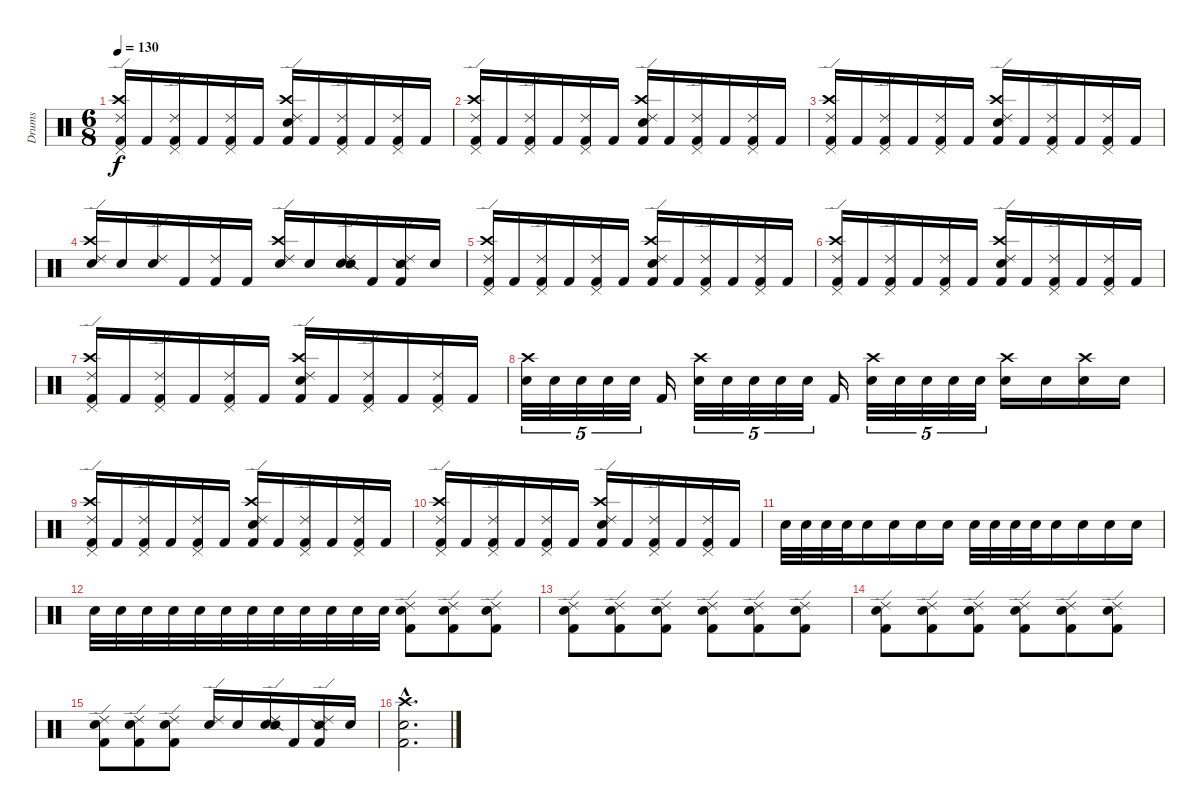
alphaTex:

\track ("Drums" "Drums") {instrument percussion}
\staff {score}
\articulation defaults
\ts (6 8)
\tempo 130
\clef neutral
\ks c
("Ride (edge) 2" "Crash high (hit)" "Pedal Hi-Hat (hit)" "Kick (hit) 2").16{dy f} "Kick (hit) 2".16 ("Ride (edge) 2" "Pedal Hi-Hat (hit)" "Kick (hit) 2").16 "Kick (hit) 2".16 ("Ride (edge) 2" "Pedal Hi-Hat (hit)" "Kick (hit) 2").16 "Kick (hit) 2".16 ("Ride (edge) 2" "Crash high (hit)" "Electric Snare (hit)" "Kick (hit) 2").16 "Kick (hit) 2".16 ("Ride (edge) 2" "Pedal Hi-Hat (hit)" "Kick (hit) 2").16 "Kick (hit) 2".16 ("Ride (edge) 2" "Pedal Hi-Hat (hit)" "Kick (hit) 2").16 "Kick (hit) 2".16 |
("Ride (edge) 2" "Crash high (hit)" "Pedal Hi-Hat (hit)" "Kick (hit) 2").16 "Kick (hit) 2".16 ("Ride (edge) 2" "Pedal Hi-Hat (hit)" "Kick (hit) 2").16 "Kick (hit) 2".16 ("Ride (edge) 2" "Pedal Hi-Hat (hit)" "Kick (hit) 2").16 "Kick (hit) 2".16 ("Ride (edge) 2" "Crash high (hit)" "Electric Snare (hit)" "Kick (hit) 2").16 "Kick (hit) 2".16 ("Ride (edge) 2" "Pedal Hi-Hat (hit)" "Kick (hit) 2").16 "Kick (hit) 2".16 ("Ride (edge) 2" "Pedal Hi-Hat (hit)" "Kick (hit) 2").16 "Kick (hit) 2".16 |
("Ride (edge) 2" "Crash high (hit)" "Pedal Hi-Hat (hit)" "Kick (hit) 2").16 "Kick (hit) 2".16 ("Ride (edge) 2" "Pedal Hi-Hat (hit)" "Kick (hit) 2").16 "Kick (hit) 2".16 ("Ride (edge) 2" "Pedal Hi-Hat (hit)" "Kick (hit) 2").16 "Kick (hit) 2".16 ("Ride (edge) 2" "Crash high (hit)" "Electric Snare (hit)" "Kick (hit) 2").16 "Kick (hit) 2".16 ("Ride (edge) 2" "Pedal Hi-Hat (hit)" "Kick (hit) 2").16 "Kick (hit) 2".16 ("Ride (edge) 2" "Pedal Hi-Hat (hit)" "Kick (hit) 2").16 "Kick (hit) 2".16 |
("Ride (edge) 2" "Crash high (hit)" "Electric Snare (hit)").16 "Electric Snare (hit)".16 ("Ride (edge) 2" "Electric Snare (hit)").16 "Kick (hit) 2".16 ("Ride (edge) 2" "Kick (hit) 2").16 "Kick (hit) 2".16 ("Ride (edge) 2" "Crash high (hit)" "Electric Snare (hit)").16 "Electric Snare (hit)".16 ("Ride (edge) 2" "Electric Snare (hit)" "Snare (side stick) 2").16 "Kick (hit) 2".16 ("Ride (edge) 2" "Snare (side stick) 2" "Kick (hit) 2").16 "Electric Snare (hit)".16 |
("Ride (edge) 2" "Crash high (hit)" "Pedal Hi-Hat (hit)" "Kick (hit) 2").16 "Kick (hit) 2".16 ("Ride (edge) 2" "Pedal Hi-Hat (hit)" "Kick (hit) 2").16 "Kick (hit) 2".16 ("Ride (edge) 2" "Pedal Hi-Hat (hit)" "Kick (hit) 2").16 "Kick (hit) 2".16 ("Ride (edge) 2" "Crash high (hit)" "Electric Snare (hit)" "Kick (hit) 2").16 "Kick (hit) 2".16 ("Ride (edge) 2" "Pedal Hi-Hat (hit)" "Kick (hit) 2").16 "Kick (hit) 2".16 ("Ride (edge) 2" "Pedal Hi-Hat (hit)" "Kick (hit) 2").16 "Kick (hit) 2".16 |
("Ride (edge) 2" "Crash high (hit)" "Pedal Hi-Hat (hit)" "Kick (hit) 2").16 "Kick (hit) 2".16 ("Ride (edge) 2" "Pedal Hi-Hat (hit)" "Kick (hit) 2").16 "Kick (hit) 2".16 ("Ride (edge) 2" "Pedal Hi-Hat (hit)" "Kick (hit) 2").16 "Kick (hit) 2".16 ("Ride (edge) 2" "Crash high (hit)" "Electric Snare (hit)" "Kick (hit) 2").16 "Kick (hit) 2".16 ("Ride (edge) 2" "Pedal Hi-Hat (hit)" "Kick (hit) 2").16 "Kick (hit) 2".16 ("Ride (edge) 2" "Pedal Hi-Hat (hit)" "Kick (hit) 2").16 "Kick (hit) 2".16 |
("Ride (edge) 2" "Crash high (hit)" "Pedal Hi-Hat (hit)" "Kick (hit) 2").16 "Kick (hit) 2".16 ("Ride (edge) 2" "Pedal Hi-Hat (hit)" "Kick (hit) 2").16 "Kick (hit) 2".16 ("Ride (edge) 2" "Pedal Hi-Hat (hit)" "Kick (hit) 2").16 "Kick (hit) 2".16 ("Ride (edge) 2" "Crash high (hit)" "Electric Snare (hit)" "Kick (hit) 2").16 "Kick (hit) 2".16 ("Ride (edge) 2" "Pedal Hi-Hat (hit)" "Kick (hit) 2").16 "Kick (hit) 2".16 ("Ride (edge) 2" "Pedal Hi-Hat (hit)" "Kick (hit) 2").16 "Kick (hit) 2".16 |
("Crash high (hit)" "Electric Snare (hit)").32{tu (5 4)} "Electric Snare (hit)".32{tu (5 4)} "Electric Snare (hit)".32{tu (5 4)} "Electric Snare (hit)".32{tu (5 4)} "Electric Snare (hit)".32{tu (5 4)} "Kick (hit) 2".16 ("Crash high (hit)" "Electric Snare (hit)").32{tu (5 4)} "Electric Snare (hit)".32{tu (5 4)} "Electric Snare (hit)".32{tu (5 4)} "Electric Snare (hit)".32{tu (5 4)} "Electric Snare (hit)".32{tu (5 4)} "Kick (hit) 2".16 ("Crash high (hit)" "Electric Snare (hit)").32{tu (5 4)} "Electric Snare (hit)".32{tu (5 4)} "Electric Snare (hit)".32{tu (5 4)} "Electric Snare (hit)".32{tu (5 4)} "Electric Snare (hit)".32{tu (5 4)} ("Crash high (hit)" "Electric Snare (hit)").16 "Electric Snare (hit)".16 ("Crash high (hit)" "Electric Snare (hit)").16 "Electric Snare (hit)".16 |
("Ride (edge) 2" "Crash high (hit)" "Pedal Hi-Hat (hit)" "Kick (hit) 2").16 "Kick (hit) 2".16 ("Ride (edge) 2" "Pedal Hi-Hat (hit)" "Kick (hit) 2").16 "Kick (hit) 2".16 ("Ride (edge) 2" "Pedal Hi-Hat (hit)" "Kick (hit) 2").16 "Kick (hit) 2".16 ("Ride (edge) 2" "Crash high (hit)" "Electric Snare (hit)" "Kick (hit) 2").16 "Kick (hit) 2".16 ("Ride (edge) 2" "Pedal Hi-Hat (hit)" "Kick (hit) 2").16 "Kick (hit) 2".16 ("Ride (edge) 2" "Pedal Hi-Hat (hit)" "Kick (hit) 2").16 "Kick (hit) 2".16 |
("Ride (edge) 2" "Crash high (hit)" "Pedal Hi-Hat (hit)" "Kick (hit) 2").16 "Kick (hit) 2".16 ("Ride (edge) 2" "Pedal Hi-Hat (hit)" "Kick (hit) 2").16 "Kick (hit) 2".16 ("Ride (edge) 2" "Pedal Hi-Hat (hit)" "Kick (hit) 2").16 "Kick (hit) 2".16 ("Ride (edge) 2" "Crash high (hit)" "Electric Snare (hit)" "Kick (hit) 2").16 "Kick (hit) 2".16 ("Ride (edge) 2" "Pedal Hi-Hat (hit)" "Kick (hit) 2").16 "Kick (hit) 2".16 ("Ride (edge) 2" "Pedal Hi-Hat (hit)" "Kick (hit) 2").16 "Kick (hit) 2".16 |
"Electric Snare (hit)".32 "Electric Snare (hit)".32 "Electric Snare (hit)".32 "Electric Snare (hit)".32 "Electric Snare (hit)".16 "Electric Snare (hit)".16 "Electric Snare (hit)".16 "Electric Snare (hit)".16 "Electric Snare (hit)".32 "Electric Snare (hit)".32 "Electric Snare (hit)".32 "Electric Snare (hit)".32 "Electric Snare (hit)".16 "Electric Snare (hit)".16 "Electric Snare (hit)".16 "Electric Snare (hit)".16 |
"Electric Snare (hit)".32 "Electric Snare (hit)".32 "Electric Snare (hit)".32 "Electric Snare (hit)".32 "Electric Snare (hit)".32 "Electric Snare (hit)".32 "Electric Snare (hit)".32 "Electric Snare (hit)".32 "Electric Snare (hit)".32 "Electric Snare (hit)".32 "Electric Snare (hit)".32 "Electric Snare (hit)".32 ("Ride (edge) 2" "Electric Snare (hit)" "Kick (hit) 2").8 ("Ride (edge) 2" "Electric Snare (hit)" "Kick (hit) 2").8 ("Ride (edge) 2" "Electric Snare (hit)" "Kick (hit) 2").8 |
("Ride (edge) 2" "Electric Snare (hit)" "Kick (hit) 2").8 ("Ride (edge) 2" "Electric Snare (hit)" "Kick (hit) 2").8 ("Ride (edge) 2" "Electric Snare (hit)" "Kick (hit) 2").8 ("Ride (edge) 2" "Electric Snare (hit)" "Kick (hit) 2").8 ("Ride (edge) 2" "Electric Snare (hit)" "Kick (hit) 2").8 ("Ride (edge) 2" "Electric Snare (hit)" "Kick (hit) 2").8 |
("Ride (edge) 2" "Electric Snare (hit)" "Kick (hit) 2").8 ("Ride (edge) 2" "Electric Snare (hit)" "Kick (hit) 2").8 ("Ride (edge) 2" "Electric Snare (hit)" "Kick (hit) 2").8 ("Ride (edge) 2" "Electric Snare (hit)" "Kick (hit) 2").8 ("Ride (edge) 2" "Electric Snare (hit)" "Kick (hit) 2").8 ("Ride (edge) 2" "Electric Snare (hit)" "Kick (hit) 2").8 |
("Ride (edge) 2" "Electric Snare (hit)" "Kick (hit) 2").8 ("Ride (edge) 2" "Electric Snare (hit)" "Kick (hit) 2").8 ("Ride (edge) 2" "Electric Snare (hit)" "Kick (hit) 2").8 ("Ride (edge) 2" "Electric Snare (hit)").16 "Electric Snare (hit)".16 ("Ride (edge) 2" "Electric Snare (hit)" "Snare (side stick) 2").16 "Kick (hit) 2".16 ("Ride (edge) 2" "Snare (side stick) 2" "Kick (hit) 2").16 "Electric Snare (hit)".16 |
("Crash high (hit)"{hac} "Electric Snare (hit)"{hac} "Kick (hit) 2"{hac}).2{d}
